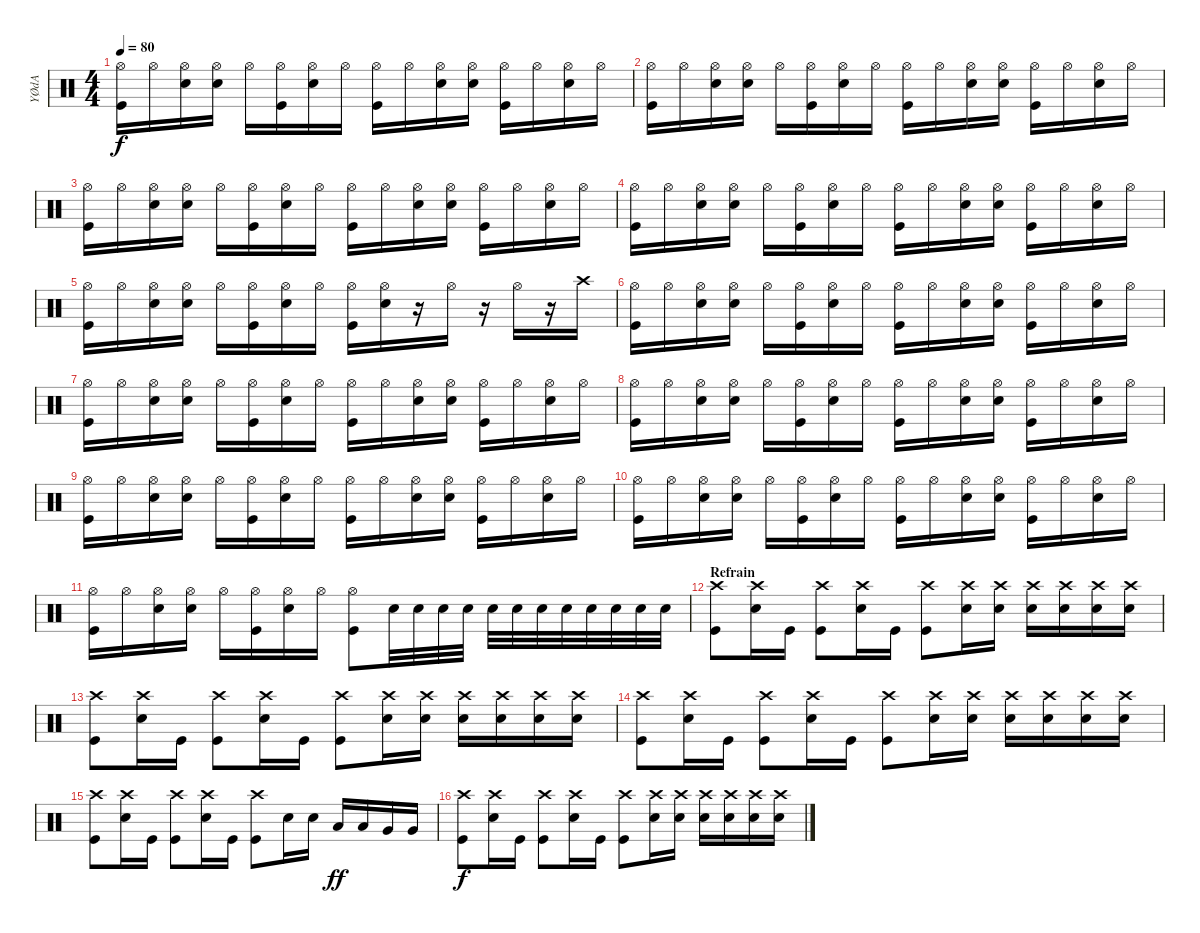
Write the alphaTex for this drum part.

\track ("YØdA" "YØdA") {instrument percussion}
\staff {score}
\articulation defaults
\ts (4 4)
\tempo 80
\clef neutral
\ks c
("Hi-Hat (open)" "Kick (hit)").16{dy f} "Hi-Hat (open)".16 ("Hi-Hat (open)" "Electric Snare (hit)").16 ("Hi-Hat (open)" "Electric Snare (hit)").16 "Hi-Hat (open)".16 ("Hi-Hat (open)" "Kick (hit)").16 ("Hi-Hat (open)" "Electric Snare (hit)").16 "Hi-Hat (open)".16 ("Hi-Hat (open)" "Kick (hit)").16 "Hi-Hat (open)".16 ("Hi-Hat (open)" "Electric Snare (hit)").16 ("Hi-Hat (open)" "Electric Snare (hit)").16 ("Hi-Hat (open)" "Kick (hit)").16 "Hi-Hat (open)".16 ("Hi-Hat (open)" "Electric Snare (hit)").16 "Hi-Hat (open)".16 |
("Hi-Hat (open)" "Kick (hit)").16 "Hi-Hat (open)".16 ("Hi-Hat (open)" "Electric Snare (hit)").16 ("Hi-Hat (open)" "Electric Snare (hit)").16 "Hi-Hat (open)".16 ("Hi-Hat (open)" "Kick (hit)").16 ("Hi-Hat (open)" "Electric Snare (hit)").16 "Hi-Hat (open)".16 ("Hi-Hat (open)" "Kick (hit)").16 "Hi-Hat (open)".16 ("Hi-Hat (open)" "Electric Snare (hit)").16 ("Hi-Hat (open)" "Electric Snare (hit)").16 ("Hi-Hat (open)" "Kick (hit)").16 "Hi-Hat (open)".16 ("Hi-Hat (open)" "Electric Snare (hit)").16 "Hi-Hat (open)".16 |
("Hi-Hat (open)" "Kick (hit)").16 "Hi-Hat (open)".16 ("Hi-Hat (open)" "Electric Snare (hit)").16 ("Hi-Hat (open)" "Electric Snare (hit)").16 "Hi-Hat (open)".16 ("Hi-Hat (open)" "Kick (hit)").16 ("Hi-Hat (open)" "Electric Snare (hit)").16 "Hi-Hat (open)".16 ("Hi-Hat (open)" "Kick (hit)").16 "Hi-Hat (open)".16 ("Hi-Hat (open)" "Electric Snare (hit)").16 ("Hi-Hat (open)" "Electric Snare (hit)").16 ("Hi-Hat (open)" "Kick (hit)").16 "Hi-Hat (open)".16 ("Hi-Hat (open)" "Electric Snare (hit)").16 "Hi-Hat (open)".16 |
("Hi-Hat (open)" "Kick (hit)").16 "Hi-Hat (open)".16 ("Hi-Hat (open)" "Electric Snare (hit)").16 ("Hi-Hat (open)" "Electric Snare (hit)").16 "Hi-Hat (open)".16 ("Hi-Hat (open)" "Kick (hit)").16 ("Hi-Hat (open)" "Electric Snare (hit)").16 "Hi-Hat (open)".16 ("Hi-Hat (open)" "Kick (hit)").16 "Hi-Hat (open)".16 ("Hi-Hat (open)" "Electric Snare (hit)").16 ("Hi-Hat (open)" "Electric Snare (hit)").16 ("Hi-Hat (open)" "Kick (hit)").16 "Hi-Hat (open)".16 ("Hi-Hat (open)" "Electric Snare (hit)").16 "Hi-Hat (open)".16 |
("Hi-Hat (open)" "Kick (hit)").16 "Hi-Hat (open)".16 ("Hi-Hat (open)" "Electric Snare (hit)").16 ("Hi-Hat (open)" "Electric Snare (hit)").16 "Hi-Hat (open)".16 ("Hi-Hat (open)" "Kick (hit)").16 ("Hi-Hat (open)" "Electric Snare (hit)").16 "Hi-Hat (open)".16 ("Hi-Hat (open)" "Kick (hit)").16 ("Hi-Hat (open)" "Electric Snare (hit)").16 r.16 "Hi-Hat (open)".16 r.16 "Hi-Hat (open)".16 r.16 "Crash high (hit)".16 |
("Hi-Hat (open)" "Kick (hit)").16 "Hi-Hat (open)".16 ("Hi-Hat (open)" "Electric Snare (hit)").16 ("Hi-Hat (open)" "Electric Snare (hit)").16 "Hi-Hat (open)".16 ("Hi-Hat (open)" "Kick (hit)").16 ("Hi-Hat (open)" "Electric Snare (hit)").16 "Hi-Hat (open)".16 ("Hi-Hat (open)" "Kick (hit)").16 "Hi-Hat (open)".16 ("Hi-Hat (open)" "Electric Snare (hit)").16 ("Hi-Hat (open)" "Electric Snare (hit)").16 ("Hi-Hat (open)" "Kick (hit)").16 "Hi-Hat (open)".16 ("Hi-Hat (open)" "Electric Snare (hit)").16 "Hi-Hat (open)".16 |
("Hi-Hat (open)" "Kick (hit)").16 "Hi-Hat (open)".16 ("Hi-Hat (open)" "Electric Snare (hit)").16 ("Hi-Hat (open)" "Electric Snare (hit)").16 "Hi-Hat (open)".16 ("Hi-Hat (open)" "Kick (hit)").16 ("Hi-Hat (open)" "Electric Snare (hit)").16 "Hi-Hat (open)".16 ("Hi-Hat (open)" "Kick (hit)").16 "Hi-Hat (open)".16 ("Hi-Hat (open)" "Electric Snare (hit)").16 ("Hi-Hat (open)" "Electric Snare (hit)").16 ("Hi-Hat (open)" "Kick (hit)").16 "Hi-Hat (open)".16 ("Hi-Hat (open)" "Electric Snare (hit)").16 "Hi-Hat (open)".16 |
("Hi-Hat (open)" "Kick (hit)").16 "Hi-Hat (open)".16 ("Hi-Hat (open)" "Electric Snare (hit)").16 ("Hi-Hat (open)" "Electric Snare (hit)").16 "Hi-Hat (open)".16 ("Hi-Hat (open)" "Kick (hit)").16 ("Hi-Hat (open)" "Electric Snare (hit)").16 "Hi-Hat (open)".16 ("Hi-Hat (open)" "Kick (hit)").16 "Hi-Hat (open)".16 ("Hi-Hat (open)" "Electric Snare (hit)").16 ("Hi-Hat (open)" "Electric Snare (hit)").16 ("Hi-Hat (open)" "Kick (hit)").16 "Hi-Hat (open)".16 ("Hi-Hat (open)" "Electric Snare (hit)").16 "Hi-Hat (open)".16 |
("Hi-Hat (open)" "Kick (hit)").16 "Hi-Hat (open)".16 ("Hi-Hat (open)" "Electric Snare (hit)").16 ("Hi-Hat (open)" "Electric Snare (hit)").16 "Hi-Hat (open)".16 ("Hi-Hat (open)" "Kick (hit)").16 ("Hi-Hat (open)" "Electric Snare (hit)").16 "Hi-Hat (open)".16 ("Hi-Hat (open)" "Kick (hit)").16 "Hi-Hat (open)".16 ("Hi-Hat (open)" "Electric Snare (hit)").16 ("Hi-Hat (open)" "Electric Snare (hit)").16 ("Hi-Hat (open)" "Kick (hit)").16 "Hi-Hat (open)".16 ("Hi-Hat (open)" "Electric Snare (hit)").16 "Hi-Hat (open)".16 |
("Hi-Hat (open)" "Kick (hit)").16 "Hi-Hat (open)".16 ("Hi-Hat (open)" "Electric Snare (hit)").16 ("Hi-Hat (open)" "Electric Snare (hit)").16 "Hi-Hat (open)".16 ("Hi-Hat (open)" "Kick (hit)").16 ("Hi-Hat (open)" "Electric Snare (hit)").16 "Hi-Hat (open)".16 ("Hi-Hat (open)" "Kick (hit)").16 "Hi-Hat (open)".16 ("Hi-Hat (open)" "Electric Snare (hit)").16 ("Hi-Hat (open)" "Electric Snare (hit)").16 ("Hi-Hat (open)" "Kick (hit)").16 "Hi-Hat (open)".16 ("Hi-Hat (open)" "Electric Snare (hit)").16 "Hi-Hat (open)".16 |
("Hi-Hat (open)" "Kick (hit)").16 "Hi-Hat (open)".16 ("Hi-Hat (open)" "Electric Snare (hit)").16 ("Hi-Hat (open)" "Electric Snare (hit)").16 "Hi-Hat (open)".16 ("Hi-Hat (open)" "Kick (hit)").16 ("Hi-Hat (open)" "Electric Snare (hit)").16 "Hi-Hat (open)".16 ("Hi-Hat (open)" "Kick (hit)").8 "Electric Snare (hit)".32 "Electric Snare (hit)".32 "Electric Snare (hit)".32 "Electric Snare (hit)".32 "Electric Snare (hit)".32 "Electric Snare (hit)".32 "Electric Snare (hit)".32 "Electric Snare (hit)".32 "Electric Snare (hit)".32 "Electric Snare (hit)".32 "Electric Snare (hit)".32 "Electric Snare (hit)".32 |
\section ("" "Refrain")
("Crash high (hit)" "Kick (hit)").8 ("Crash high (hit)" "Electric Snare (hit)").16 "Kick (hit)".16 ("Crash high (hit)" "Kick (hit)").8 ("Crash high (hit)" "Electric Snare (hit)").16 "Kick (hit)".16 ("Crash high (hit)" "Kick (hit)").8 ("Crash high (hit)" "Electric Snare (hit)").16 ("Crash high (hit)" "Electric Snare (hit)").16 ("Crash high (hit)" "Electric Snare (hit)").16 ("Crash high (hit)" "Electric Snare (hit)").16 ("Crash high (hit)" "Electric Snare (hit)").16 ("Crash high (hit)" "Electric Snare (hit)").16 |
("Crash high (hit)" "Kick (hit)").8 ("Crash high (hit)" "Electric Snare (hit)").16 "Kick (hit)".16 ("Crash high (hit)" "Kick (hit)").8 ("Crash high (hit)" "Electric Snare (hit)").16 "Kick (hit)".16 ("Crash high (hit)" "Kick (hit)").8 ("Crash high (hit)" "Electric Snare (hit)").16 ("Crash high (hit)" "Electric Snare (hit)").16 ("Crash high (hit)" "Electric Snare (hit)").16 ("Crash high (hit)" "Electric Snare (hit)").16 ("Crash high (hit)" "Electric Snare (hit)").16 ("Crash high (hit)" "Electric Snare (hit)").16 |
("Crash high (hit)" "Kick (hit)").8 ("Crash high (hit)" "Electric Snare (hit)").16 "Kick (hit)".16 ("Crash high (hit)" "Kick (hit)").8 ("Crash high (hit)" "Electric Snare (hit)").16 "Kick (hit)".16 ("Crash high (hit)" "Kick (hit)").8 ("Crash high (hit)" "Electric Snare (hit)").16 ("Crash high (hit)" "Electric Snare (hit)").16 ("Crash high (hit)" "Electric Snare (hit)").16 ("Crash high (hit)" "Electric Snare (hit)").16 ("Crash high (hit)" "Electric Snare (hit)").16 ("Crash high (hit)" "Electric Snare (hit)").16 |
("Crash high (hit)" "Kick (hit)").8 ("Crash high (hit)" "Electric Snare (hit)").16 "Kick (hit)".16 ("Crash high (hit)" "Kick (hit)").8 ("Crash high (hit)" "Electric Snare (hit)").16 "Kick (hit)".16 ("Crash high (hit)" "Kick (hit)").8 "Electric Snare (hit)".16 "Electric Snare (hit)".16 "Low Tom (hit)".16{dy ff} "Low Tom (hit)".16 "Very Low Tom (hit)".16 "Very Low Tom (hit)".16 |
("Crash high (hit)" "Kick (hit)").8{dy f} ("Crash high (hit)" "Electric Snare (hit)").16 "Kick (hit)".16 ("Crash high (hit)" "Kick (hit)").8 ("Crash high (hit)" "Electric Snare (hit)").16 "Kick (hit)".16 ("Crash high (hit)" "Kick (hit)").8 ("Crash high (hit)" "Electric Snare (hit)").16 ("Crash high (hit)" "Electric Snare (hit)").16 ("Crash high (hit)" "Electric Snare (hit)").16 ("Crash high (hit)" "Electric Snare (hit)").16 ("Crash high (hit)" "Electric Snare (hit)").16 ("Crash high (hit)" "Electric Snare (hit)").16
